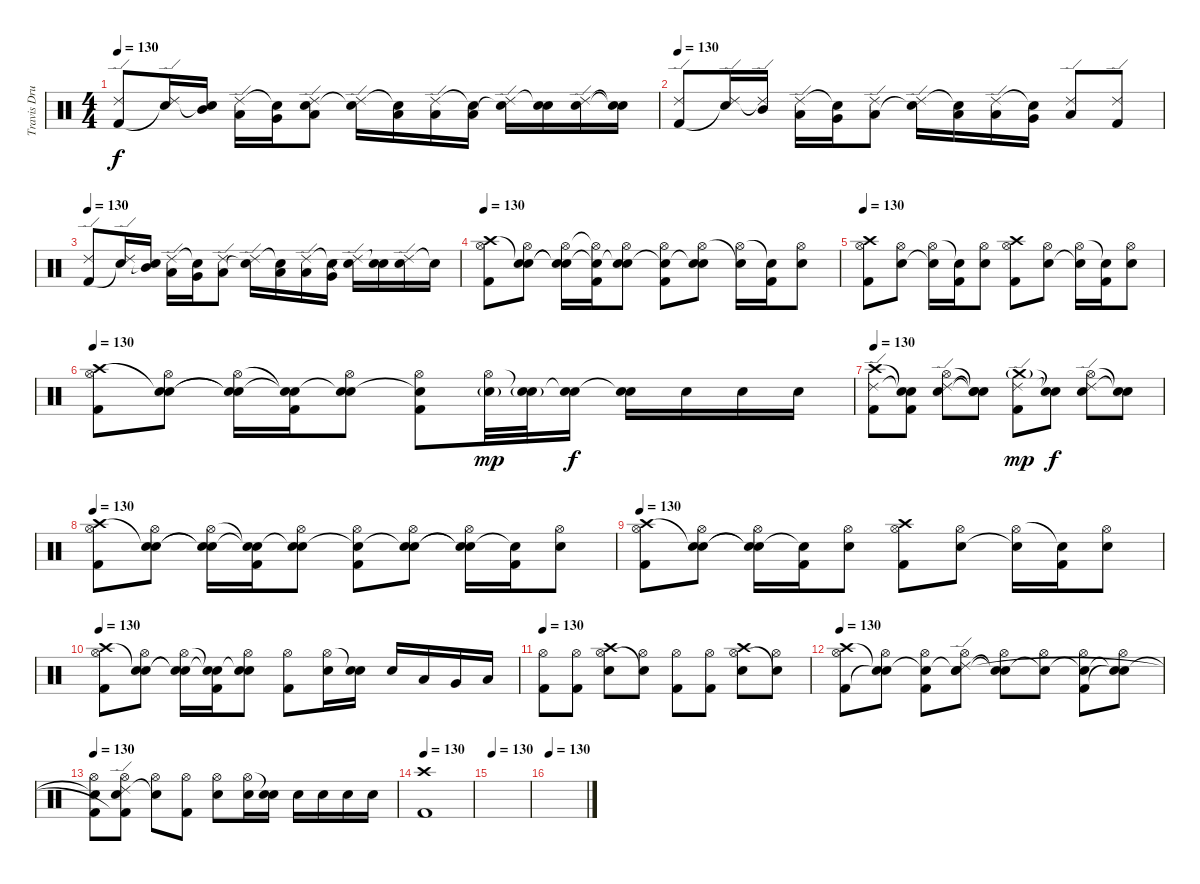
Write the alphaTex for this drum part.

\track ("Travis Drums" "Travis Dru") {instrument percussion}
\staff {score}
\articulation defaults
\ts (4 4)
\tempo 130
\clef neutral
\ks c
("Ride (edge) 2" "Kick (hit) 2").8{dy f} ("Ride (edge) 2" "Snare (hit)"{t}).16 ("Snare (hit)"{t} "Mid Tom (hit)").16 ("Ride (edge) 2" "Low Tom (hit)").16 ("Snare (hit)"{t} "Very Low Tom (hit)").16 ("Ride (edge) 2" "Electric Snare (hit)" "Low Floor Tom (hit)").8 ("Ride (edge) 2" "Snare (hit)"{t}).16 ("Snare (hit)"{t} "Low Tom (hit)").16 ("Ride (edge) 2" "Low Tom (hit)").16 ("Snare (hit)"{t} "Low Tom (hit)").16 ("Ride (edge) 2" "Electric Snare (hit)"{t}).16 ("Snare (hit)"{t} "Electric Snare (hit)").16 ("Ride (edge) 2" "Electric Snare (hit)").16 ("Snare (hit)"{t} "Snare (hit)"{t}).16 |
\tempo 130
("Ride (edge) 2" "Kick (hit) 2").8 ("Ride (edge) 2" "Snare (hit)"{t}).16 ("Ride (edge) 2"{t} "Mid Tom (hit)").16 ("Ride (edge) 2" "Low Tom (hit)").16 ("Snare (hit)"{t} "Very Low Tom (hit)").16 ("Ride (edge) 2" "Low Floor Tom (hit)").8 ("Ride (edge) 2" "Snare (hit)"{t}).16 ("Snare (hit)"{t} "Low Tom (hit)").16 ("Ride (edge) 2" "Low Tom (hit)").16 ("Snare (hit)"{t} "Very Low Tom (hit)").16 ("Ride (edge) 2" "Low Floor Tom (hit)").8 ("Ride (edge) 2" "Kick (hit) 2").8 |
\tempo 130
("Ride (edge) 2" "Kick (hit) 2").8 ("Ride (edge) 2" "Snare (hit)"{t}).16 ("Snare (hit)"{t} "Mid Tom (hit)").16 ("Ride (edge) 2" "Low Tom (hit)").16 ("Snare (hit)"{t} "Very Low Tom (hit)").16 ("Ride (edge) 2" "Low Floor Tom (hit)").8 ("Ride (edge) 2" "Snare (hit)"{t}).16 ("Snare (hit)"{t} "Low Tom (hit)").16 ("Ride (edge) 2" "Low Tom (hit)").16 ("Snare (hit)"{t} "Very Low Tom (hit)").16 ("Ride (edge) 2" "Snare (hit)"{t}).16 ("Snare (hit)"{t} "Electric Snare (hit)").16 ("Ride (edge) 2" "Electric Snare (hit)").16 "Snare (hit)"{t}.16 |
\tempo 130
("Crash high (hit)" "Hi-Hat (open)" "Kick (hit) 2").8 ("Snare (hit)"{t} "Hi-Hat (open)" "Electric Snare (hit)").8 ("Snare (hit)"{t} "Hi-Hat (open)" "Snare (hit)"{t}).16 ("Snare (hit)"{t} "Hi-Hat (open)"{t} "Kick (hit) 2").16 ("Snare (hit)"{t} "Hi-Hat (open)" "Electric Snare (hit)").8 ("Snare (hit)"{t} "Hi-Hat (open)" "Kick (hit) 2").8 ("Snare (hit)"{t} "Hi-Hat (open)" "Electric Snare (hit)").8 ("Hi-Hat (open)" "Snare (hit)"{t}).16 ("Snare (hit)"{t} "Kick (hit) 2").16 ("Hi-Hat (open)" "Electric Snare (hit)").8 |
\tempo 130
("Crash high (hit)" "Hi-Hat (open)" "Kick (hit) 2").8 ("Hi-Hat (open)" "Electric Snare (hit)").8 ("Hi-Hat (open)" "Snare (hit)"{t}).16 ("Snare (hit)"{t} "Kick (hit) 2").16 ("Hi-Hat (open)" "Electric Snare (hit)").8 ("Crash high (hit)" "Hi-Hat (open)" "Kick (hit) 2").8 ("Hi-Hat (open)" "Electric Snare (hit)").8 ("Hi-Hat (open)" "Snare (hit)"{t}).16 ("Snare (hit)"{t} "Kick (hit) 2").16 ("Hi-Hat (open)" "Electric Snare (hit)").8 |
\tempo 130
("Crash high (hit)" "Hi-Hat (open)" "Kick (hit) 2").8 ("Snare (hit)"{t} "Hi-Hat (open)" "Electric Snare (hit)").8 ("Snare (hit)"{t} "Hi-Hat (open)" "Snare (hit)"{t}).16 ("Snare (hit)"{t} "Snare (hit)"{t} "Kick (hit) 2").16 ("Snare (hit)"{t} "Hi-Hat (open)" "Electric Snare (hit)").8 ("Snare (hit)"{t} "Hi-Hat (open)" "Kick (hit) 2").8 ("Hi-Hat (open)" "Electric Snare (hit)"{g}).32{dy mp} ("Snare (hit)"{t} "Electric Snare (hit)"{g}).32 ("Snare (hit)"{t} "Electric Snare (hit)").16{dy f} ("Snare (hit)"{t} "Electric Snare (hit)").16 "Electric Snare (hit)".16 "Electric Snare (hit)".16 "Electric Snare (hit)".16 |
\tempo 130
("Crash high (hit)" "Ride (edge) 2" "Kick (hit) 2").8 ("Snare (hit)"{t} "Snare (hit)"{t} "Kick (hit) 2").8 ("Hi-Hat (open)" "Ride (edge) 2" "Electric Snare (hit)").8 ("Snare (hit)"{t} "Snare (hit)"{t} "Snare (hit)"{t}).8 ("Crash medium (hit)"{g} "Ride (edge) 2" "Kick (hit) 2").8{dy mp} ("Snare (hit)"{t} "Snare (hit)"{t}).8{dy f} ("Hi-Hat (open)" "Ride (edge) 2" "Electric Snare (hit)").8 ("Snare (hit)"{t} "Snare (hit)"{t}).8 |
\tempo 130
("Crash high (hit)" "Hi-Hat (open)" "Kick (hit) 2").8 ("Snare (hit)"{t} "Hi-Hat (open)" "Electric Snare (hit)").8 ("Snare (hit)"{t} "Hi-Hat (open)" "Snare (hit)"{t}).16 ("Snare (hit)"{t} "Snare (hit)"{t} "Kick (hit) 2").16 ("Snare (hit)"{t} "Hi-Hat (open)" "Electric Snare (hit)").8 ("Snare (hit)"{t} "Hi-Hat (open)" "Kick (hit) 2").8 ("Snare (hit)"{t} "Hi-Hat (open)" "Electric Snare (hit)").8 ("Snare (hit)"{t} "Hi-Hat (open)" "Snare (hit)"{t}).16 ("Snare (hit)"{t} "Kick (hit) 2").16 ("Hi-Hat (open)" "Electric Snare (hit)").8 |
\tempo 130
("Crash high (hit)" "Hi-Hat (open)" "Kick (hit) 2").8 ("Snare (hit)"{t} "Hi-Hat (open)" "Electric Snare (hit)").8 ("Snare (hit)"{t} "Hi-Hat (open)" "Snare (hit)"{t}).16 ("Snare (hit)"{t} "Kick (hit) 2").16 ("Hi-Hat (open)" "Electric Snare (hit)").8 ("Crash high (hit)" "Hi-Hat (open)" "Kick (hit) 2").8 ("Hi-Hat (open)" "Electric Snare (hit)").8 ("Hi-Hat (open)" "Snare (hit)"{t}).16 ("Snare (hit)"{t} "Kick (hit) 2").16 ("Hi-Hat (open)" "Electric Snare (hit)").8 |
\tempo 130
("Crash high (hit)" "Hi-Hat (open)" "Kick (hit) 2").8 ("Snare (hit)"{t} "Hi-Hat (open)" "Electric Snare (hit)").8 ("Snare (hit)"{t} "Hi-Hat (open)" "Snare (hit)"{t}).16 ("Snare (hit)"{t} "Snare (hit)"{t} "Kick (hit) 2").16 ("Snare (hit)"{t} "Hi-Hat (open)" "Electric Snare (hit)").8 ("Hi-Hat (open)" "Kick (hit) 2").8 ("Hi-Hat (open)" "Electric Snare (hit)").16 ("Snare (hit)"{t} "Electric Snare (hit)").16 "Electric Snare (hit)".16 "Low Tom (hit)".16 "Very Low Tom (hit)".16 "Low Floor Tom (hit)".16 |
\tempo 130
("Hi-Hat (open)" "Kick (hit) 2").8 ("Hi-Hat (open)" "Kick (hit) 2").8 ("Crash high (hit)" "Hi-Hat (open)" "Electric Snare (hit)").8 ("Hi-Hat (open)" "Snare (hit)"{t}).8 ("Hi-Hat (open)" "Kick (hit) 2").8 ("Hi-Hat (open)" "Kick (hit) 2").8 ("Crash high (hit)" "Hi-Hat (open)" "Electric Snare (hit)").8 ("Hi-Hat (open)" "Snare (hit)"{t}).8 |
\tempo 130
("Crash high (hit)" "Hi-Hat (open)" "Kick (hit) 2").8 ("Snare (hit)"{t} "Hi-Hat (open)" "Snare (hit)"{t}).8 ("Snare (hit)"{t} "Hi-Hat (open)" "Kick (hit) 2").8 ("Snare (hit)"{t} "Hi-Hat (open)" "Ride (edge) 2" "Electric Snare (hit)").8 ("Snare (hit)"{t} "Hi-Hat (open)" "Snare (hit)"{t}).8 ("Snare (hit)"{t} "Hi-Hat (open)").8 ("Snare (hit)"{t} "Hi-Hat (open)" "Kick (hit) 2").8 ("Snare (hit)"{t} "Hi-Hat (open)" "Snare (hit)"{t}).8 |
\tempo 130
("Snare (hit)"{t} "Hi-Hat (open)" "Kick (hit) 2").8 ("Hi-Hat (open)" "Ride (edge) 2" "Electric Snare (hit)" "Kick (hit) 2"{t}).8 ("Hi-Hat (open)" "Snare (hit)"{t}).8 ("Hi-Hat (open)" "Kick (hit) 2").8 ("Hi-Hat (open)" "Electric Snare (hit)").8 ("Hi-Hat (open)" "Electric Snare (hit)").16 ("Snare (hit)"{t} "Electric Snare (hit)").16 "Electric Snare (hit)".16 "Electric Snare (hit)".16 "Electric Snare (hit)".16 "Electric Snare (hit)".16 |
\tempo 130
("Crash high (hit)" "Kick (hit) 2").1 |
\tempo 130
|
\tempo 130
